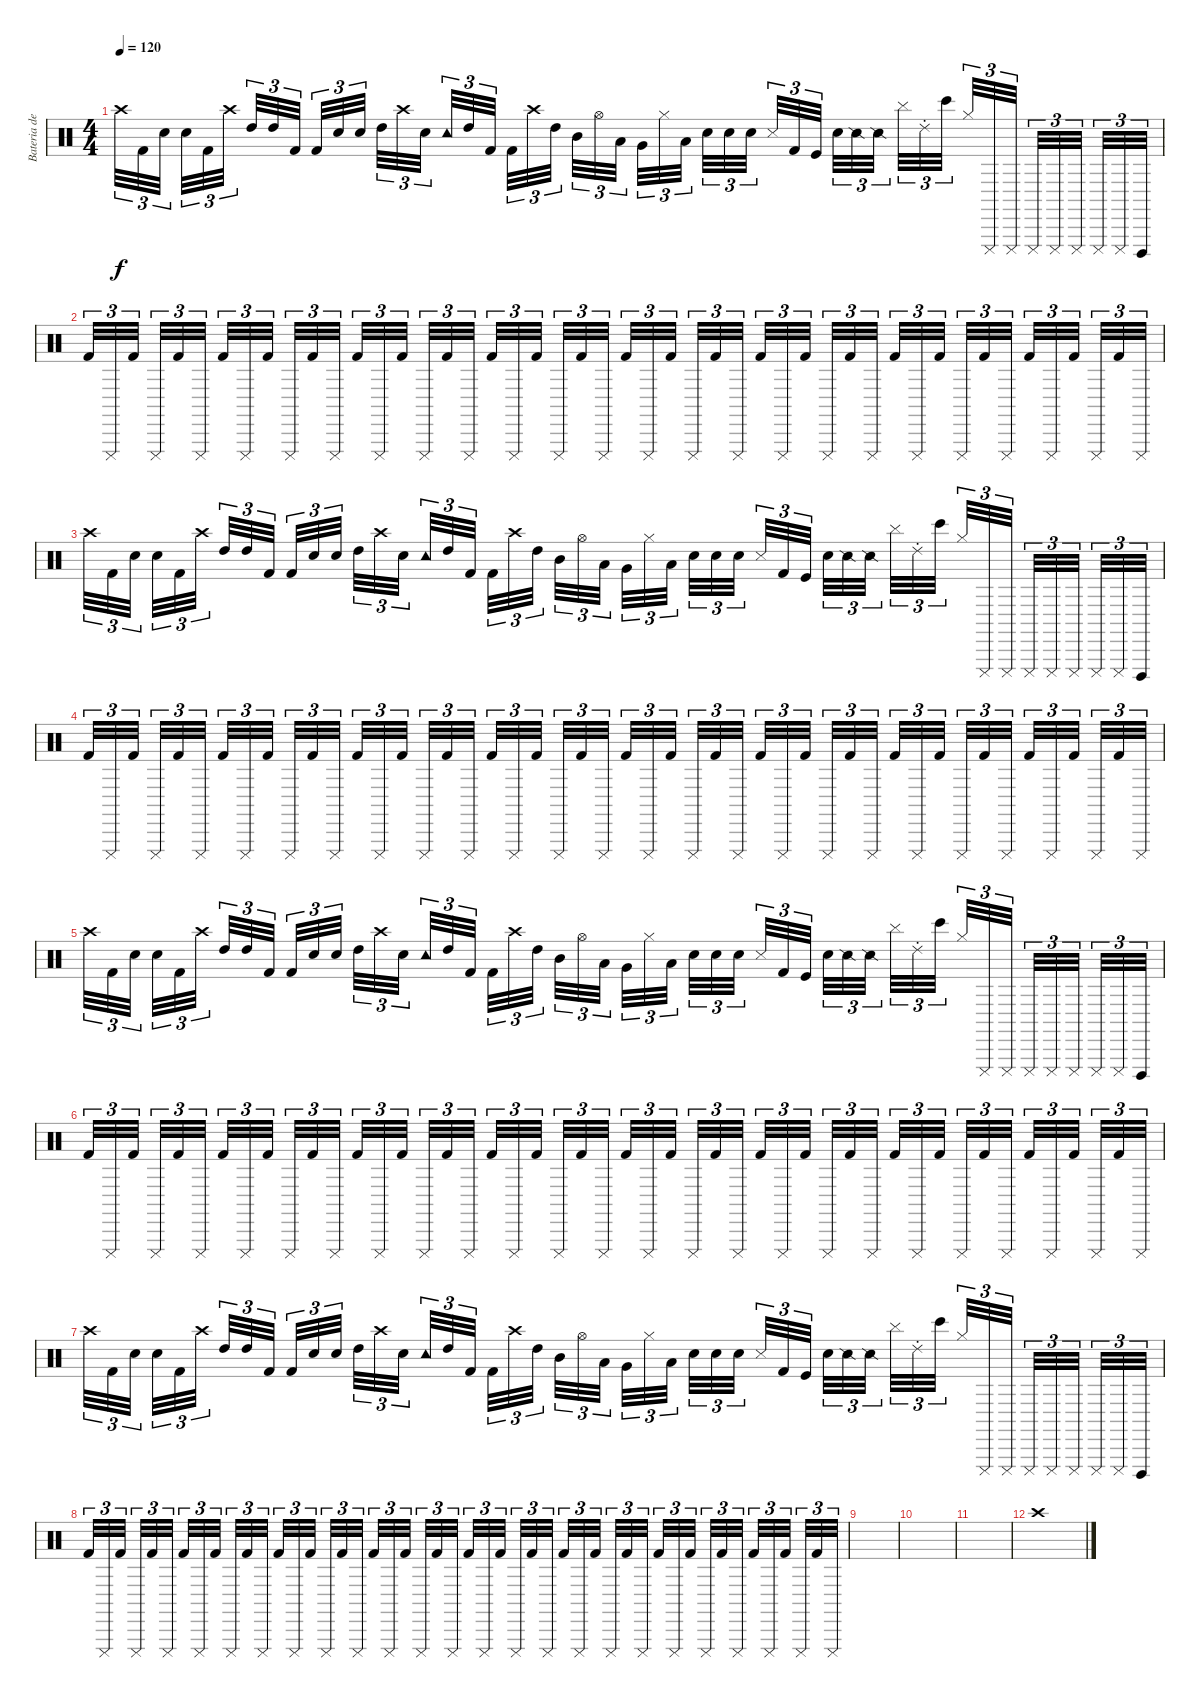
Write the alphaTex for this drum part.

\track ("Bateria de animal" "Bateria de") {instrument percussion}
\staff {score}
\articulation defaults
\ts (4 4)
\tempo 120
\clef neutral
\ks c "Crash high (hit)".32{tu (3 2) dy f} "Kick (hit) 2".32{tu (3 2)} "Electric Snare (hit)".32{tu (3 2)} "Electric Snare (hit)".32{tu (3 2)} "Kick (hit) 2".32{tu (3 2)} "Crash high (hit)".32{tu (3 2)} "High Tom (hit)".32{tu (3 2)} "High Tom (hit)".32{tu (3 2)} "Kick (hit) 2".32{tu (3 2)} "Kick (hit) 2".32{tu (3 2)} "Electric Snare (hit)".32{tu (3 2)} "Electric Snare (hit)".32{tu (3 2)} "High Tom (hit)".32{tu (3 2)} "Crash high (hit)".32{tu (3 2)} "Snare (hit) 2".32{tu (3 2)} "Tambourine (hit)".32{tu (3 2)} "High Tom (hit)".32{tu (3 2)} "Kick (hit) 2".32{tu (3 2)} "Kick (hit) 2".32{tu (3 2)} "Crash high (hit)".32{tu (3 2)} "High Tom (hit)".32{tu (3 2)} "Mid Tom (hit)".32{tu (3 2)} "Hi-Hat (open)".32{tu (3 2)} "Low Tom (hit)".32{tu (3 2)} "Very Low Tom (hit)".32{tu (3 2)} "Hi-Hat (closed)".32{tu (3 2)} "Low Floor Tom (hit)".32{tu (3 2)} "Electric Snare (hit)".32{tu (3 2)} "Hand Clap (hit)".32{tu (3 2)} "Snare (hit) 2".32{tu (3 2)} "Snare (side stick) 3".32{tu (3 2)} "Kick (hit) 2".32{tu (3 2)} "Kick (hit)".32{tu (3 2)} "Metronome (bell)".32{tu (3 2)} "Snare (side stick) 2".32{tu (3 2)} "Snare (side stick) 2".32{tu (3 2)} "Cymbal (hit)".32{tu (3 2)} "Ride (choke) 2".32{tu (3 2)} "Bongo High (hit)".32{tu (3 2)} "Hi-Hat (closed)".32{tu (3 2)} "Cuica (mute)".32{tu (3 2)} "Cuica (mute)".32{tu (3 2)} "Cuica (mute)".32{tu (3 2)} "Cuica (mute)".32{tu (3 2)} "Cuica (mute)".32{tu (3 2)} "Cuica (mute)".32{tu (3 2)} "Cuica (mute)".32{tu (3 2)} "Cuica (open)".32{tu (3 2)}
|
"Kick (hit) 2".32{tu (3 2)} "Cuica (mute)".32{tu (3 2)} "Kick (hit) 2".32{tu (3 2)} "Cuica (mute)".32{tu (3 2)} "Kick (hit) 2".32{tu (3 2)} "Cuica (mute)".32{tu (3 2)} "Kick (hit) 2".32{tu (3 2)} "Cuica (mute)".32{tu (3 2)} "Kick (hit) 2".32{tu (3 2)} "Cuica (mute)".32{tu (3 2)} "Kick (hit) 2".32{tu (3 2)} "Cuica (mute)".32{tu (3 2)} "Kick (hit) 2".32{tu (3 2)} "Cuica (mute)".32{tu (3 2)} "Kick (hit) 2".32{tu (3 2)} "Cuica (mute)".32{tu (3 2)} "Kick (hit) 2".32{tu (3 2)} "Cuica (mute)".32{tu (3 2)} "Kick (hit) 2".32{tu (3 2)} "Cuica (mute)".32{tu (3 2)} "Kick (hit) 2".32{tu (3 2)} "Cuica (mute)".32{tu (3 2)} "Kick (hit) 2".32{tu (3 2)} "Cuica (mute)".32{tu (3 2)} "Kick (hit) 2".32{tu (3 2)} "Cuica (mute)".32{tu (3 2)} "Kick (hit) 2".32{tu (3 2)} "Cuica (mute)".32{tu (3 2)} "Kick (hit) 2".32{tu (3 2)} "Cuica (mute)".32{tu (3 2)} "Kick (hit) 2".32{tu (3 2)} "Cuica (mute)".32{tu (3 2)} "Kick (hit) 2".32{tu (3 2)} "Cuica (mute)".32{tu (3 2)} "Kick (hit) 2".32{tu (3 2)} "Cuica (mute)".32{tu (3 2)} "Kick (hit) 2".32{tu (3 2)} "Cuica (mute)".32{tu (3 2)} "Kick (hit) 2".32{tu (3 2)} "Cuica (mute)".32{tu (3 2)} "Kick (hit) 2".32{tu (3 2)} "Cuica (mute)".32{tu (3 2)} "Kick (hit) 2".32{tu (3 2)} "Cuica (mute)".32{tu (3 2)} "Kick (hit) 2".32{tu (3 2)} "Cuica (mute)".32{tu (3 2)} "Kick (hit) 2".32{tu (3 2)} "Cuica (mute)".32{tu (3 2)} |
"Crash high (hit)".32{tu (3 2)} "Kick (hit) 2".32{tu (3 2)} "Electric Snare (hit)".32{tu (3 2)} "Electric Snare (hit)".32{tu (3 2)} "Kick (hit) 2".32{tu (3 2)} "Crash high (hit)".32{tu (3 2)} "High Tom (hit)".32{tu (3 2)} "High Tom (hit)".32{tu (3 2)} "Kick (hit) 2".32{tu (3 2)} "Kick (hit) 2".32{tu (3 2)} "Electric Snare (hit)".32{tu (3 2)} "Electric Snare (hit)".32{tu (3 2)} "High Tom (hit)".32{tu (3 2)} "Crash high (hit)".32{tu (3 2)} "Snare (hit) 2".32{tu (3 2)} "Tambourine (hit)".32{tu (3 2)} "High Tom (hit)".32{tu (3 2)} "Kick (hit) 2".32{tu (3 2)} "Kick (hit) 2".32{tu (3 2)} "Crash high (hit)".32{tu (3 2)} "High Tom (hit)".32{tu (3 2)} "Mid Tom (hit)".32{tu (3 2)} "Hi-Hat (open)".32{tu (3 2)} "Low Tom (hit)".32{tu (3 2)} "Very Low Tom (hit)".32{tu (3 2)} "Hi-Hat (closed)".32{tu (3 2)} "Low Floor Tom (hit)".32{tu (3 2)} "Electric Snare (hit)".32{tu (3 2)} "Hand Clap (hit)".32{tu (3 2)} "Snare (hit) 2".32{tu (3 2)} "Snare (side stick) 3".32{tu (3 2)} "Kick (hit) 2".32{tu (3 2)} "Kick (hit)".32{tu (3 2)} "Metronome (bell)".32{tu (3 2)} "Snare (side stick) 2".32{tu (3 2)} "Snare (side stick) 2".32{tu (3 2)} "Cymbal (hit)".32{tu (3 2)} "Ride (choke) 2".32{tu (3 2)} "Bongo High (hit)".32{tu (3 2)} "Hi-Hat (closed)".32{tu (3 2)} "Cuica (mute)".32{tu (3 2)} "Cuica (mute)".32{tu (3 2)} "Cuica (mute)".32{tu (3 2)} "Cuica (mute)".32{tu (3 2)} "Cuica (mute)".32{tu (3 2)} "Cuica (mute)".32{tu (3 2)} "Cuica (mute)".32{tu (3 2)} "Cuica (open)".32{tu (3 2)} |
"Kick (hit) 2".32{tu (3 2)} "Cuica (mute)".32{tu (3 2)} "Kick (hit) 2".32{tu (3 2)} "Cuica (mute)".32{tu (3 2)} "Kick (hit) 2".32{tu (3 2)} "Cuica (mute)".32{tu (3 2)} "Kick (hit) 2".32{tu (3 2)} "Cuica (mute)".32{tu (3 2)} "Kick (hit) 2".32{tu (3 2)} "Cuica (mute)".32{tu (3 2)} "Kick (hit) 2".32{tu (3 2)} "Cuica (mute)".32{tu (3 2)} "Kick (hit) 2".32{tu (3 2)} "Cuica (mute)".32{tu (3 2)} "Kick (hit) 2".32{tu (3 2)} "Cuica (mute)".32{tu (3 2)} "Kick (hit) 2".32{tu (3 2)} "Cuica (mute)".32{tu (3 2)} "Kick (hit) 2".32{tu (3 2)} "Cuica (mute)".32{tu (3 2)} "Kick (hit) 2".32{tu (3 2)} "Cuica (mute)".32{tu (3 2)} "Kick (hit) 2".32{tu (3 2)} "Cuica (mute)".32{tu (3 2)} "Kick (hit) 2".32{tu (3 2)} "Cuica (mute)".32{tu (3 2)} "Kick (hit) 2".32{tu (3 2)} "Cuica (mute)".32{tu (3 2)} "Kick (hit) 2".32{tu (3 2)} "Cuica (mute)".32{tu (3 2)} "Kick (hit) 2".32{tu (3 2)} "Cuica (mute)".32{tu (3 2)} "Kick (hit) 2".32{tu (3 2)} "Cuica (mute)".32{tu (3 2)} "Kick (hit) 2".32{tu (3 2)} "Cuica (mute)".32{tu (3 2)} "Kick (hit) 2".32{tu (3 2)} "Cuica (mute)".32{tu (3 2)} "Kick (hit) 2".32{tu (3 2)} "Cuica (mute)".32{tu (3 2)} "Kick (hit) 2".32{tu (3 2)} "Cuica (mute)".32{tu (3 2)} "Kick (hit) 2".32{tu (3 2)} "Cuica (mute)".32{tu (3 2)} "Kick (hit) 2".32{tu (3 2)} "Cuica (mute)".32{tu (3 2)} "Kick (hit) 2".32{tu (3 2)} "Cuica (mute)".32{tu (3 2)} |
"Crash high (hit)".32{tu (3 2)} "Kick (hit) 2".32{tu (3 2)} "Electric Snare (hit)".32{tu (3 2)} "Electric Snare (hit)".32{tu (3 2)} "Kick (hit) 2".32{tu (3 2)} "Crash high (hit)".32{tu (3 2)} "High Tom (hit)".32{tu (3 2)} "High Tom (hit)".32{tu (3 2)} "Kick (hit) 2".32{tu (3 2)} "Kick (hit) 2".32{tu (3 2)} "Electric Snare (hit)".32{tu (3 2)} "Electric Snare (hit)".32{tu (3 2)} "High Tom (hit)".32{tu (3 2)} "Crash high (hit)".32{tu (3 2)} "Snare (hit) 2".32{tu (3 2)} "Tambourine (hit)".32{tu (3 2)} "High Tom (hit)".32{tu (3 2)} "Kick (hit) 2".32{tu (3 2)} "Kick (hit) 2".32{tu (3 2)} "Crash high (hit)".32{tu (3 2)} "High Tom (hit)".32{tu (3 2)} "Mid Tom (hit)".32{tu (3 2)} "Hi-Hat (open)".32{tu (3 2)} "Low Tom (hit)".32{tu (3 2)} "Very Low Tom (hit)".32{tu (3 2)} "Hi-Hat (closed)".32{tu (3 2)} "Low Floor Tom (hit)".32{tu (3 2)} "Electric Snare (hit)".32{tu (3 2)} "Hand Clap (hit)".32{tu (3 2)} "Snare (hit) 2".32{tu (3 2)} "Snare (side stick) 3".32{tu (3 2)} "Kick (hit) 2".32{tu (3 2)} "Kick (hit)".32{tu (3 2)} "Metronome (bell)".32{tu (3 2)} "Snare (side stick) 2".32{tu (3 2)} "Snare (side stick) 2".32{tu (3 2)} "Cymbal (hit)".32{tu (3 2)} "Ride (choke) 2".32{tu (3 2)} "Bongo High (hit)".32{tu (3 2)} "Hi-Hat (closed)".32{tu (3 2)} "Cuica (mute)".32{tu (3 2)} "Cuica (mute)".32{tu (3 2)} "Cuica (mute)".32{tu (3 2)} "Cuica (mute)".32{tu (3 2)} "Cuica (mute)".32{tu (3 2)} "Cuica (mute)".32{tu (3 2)} "Cuica (mute)".32{tu (3 2)} "Cuica (open)".32{tu (3 2)} |
"Kick (hit) 2".32{tu (3 2)} "Cuica (mute)".32{tu (3 2)} "Kick (hit) 2".32{tu (3 2)} "Cuica (mute)".32{tu (3 2)} "Kick (hit) 2".32{tu (3 2)} "Cuica (mute)".32{tu (3 2)} "Kick (hit) 2".32{tu (3 2)} "Cuica (mute)".32{tu (3 2)} "Kick (hit) 2".32{tu (3 2)} "Cuica (mute)".32{tu (3 2)} "Kick (hit) 2".32{tu (3 2)} "Cuica (mute)".32{tu (3 2)} "Kick (hit) 2".32{tu (3 2)} "Cuica (mute)".32{tu (3 2)} "Kick (hit) 2".32{tu (3 2)} "Cuica (mute)".32{tu (3 2)} "Kick (hit) 2".32{tu (3 2)} "Cuica (mute)".32{tu (3 2)} "Kick (hit) 2".32{tu (3 2)} "Cuica (mute)".32{tu (3 2)} "Kick (hit) 2".32{tu (3 2)} "Cuica (mute)".32{tu (3 2)} "Kick (hit) 2".32{tu (3 2)} "Cuica (mute)".32{tu (3 2)} "Kick (hit) 2".32{tu (3 2)} "Cuica (mute)".32{tu (3 2)} "Kick (hit) 2".32{tu (3 2)} "Cuica (mute)".32{tu (3 2)} "Kick (hit) 2".32{tu (3 2)} "Cuica (mute)".32{tu (3 2)} "Kick (hit) 2".32{tu (3 2)} "Cuica (mute)".32{tu (3 2)} "Kick (hit) 2".32{tu (3 2)} "Cuica (mute)".32{tu (3 2)} "Kick (hit) 2".32{tu (3 2)} "Cuica (mute)".32{tu (3 2)} "Kick (hit) 2".32{tu (3 2)} "Cuica (mute)".32{tu (3 2)} "Kick (hit) 2".32{tu (3 2)} "Cuica (mute)".32{tu (3 2)} "Kick (hit) 2".32{tu (3 2)} "Cuica (mute)".32{tu (3 2)} "Kick (hit) 2".32{tu (3 2)} "Cuica (mute)".32{tu (3 2)} "Kick (hit) 2".32{tu (3 2)} "Cuica (mute)".32{tu (3 2)} "Kick (hit) 2".32{tu (3 2)} "Cuica (mute)".32{tu (3 2)} |
"Crash high (hit)".32{tu (3 2)} "Kick (hit) 2".32{tu (3 2)} "Electric Snare (hit)".32{tu (3 2)} "Electric Snare (hit)".32{tu (3 2)} "Kick (hit) 2".32{tu (3 2)} "Crash high (hit)".32{tu (3 2)} "High Tom (hit)".32{tu (3 2)} "High Tom (hit)".32{tu (3 2)} "Kick (hit) 2".32{tu (3 2)} "Kick (hit) 2".32{tu (3 2)} "Electric Snare (hit)".32{tu (3 2)} "Electric Snare (hit)".32{tu (3 2)} "High Tom (hit)".32{tu (3 2)} "Crash high (hit)".32{tu (3 2)} "Snare (hit) 2".32{tu (3 2)} "Tambourine (hit)".32{tu (3 2)} "High Tom (hit)".32{tu (3 2)} "Kick (hit) 2".32{tu (3 2)} "Kick (hit) 2".32{tu (3 2)} "Crash high (hit)".32{tu (3 2)} "High Tom (hit)".32{tu (3 2)} "Mid Tom (hit)".32{tu (3 2)} "Hi-Hat (open)".32{tu (3 2)} "Low Tom (hit)".32{tu (3 2)} "Very Low Tom (hit)".32{tu (3 2)} "Hi-Hat (closed)".32{tu (3 2)} "Low Floor Tom (hit)".32{tu (3 2)} "Electric Snare (hit)".32{tu (3 2)} "Hand Clap (hit)".32{tu (3 2)} "Snare (hit) 2".32{tu (3 2)} "Snare (side stick) 3".32{tu (3 2)} "Kick (hit) 2".32{tu (3 2)} "Kick (hit)".32{tu (3 2)} "Metronome (bell)".32{tu (3 2)} "Snare (side stick) 2".32{tu (3 2)} "Snare (side stick) 2".32{tu (3 2)} "Cymbal (hit)".32{tu (3 2)} "Ride (choke) 2".32{tu (3 2)} "Bongo High (hit)".32{tu (3 2)} "Hi-Hat (closed)".32{tu (3 2)} "Cuica (mute)".32{tu (3 2)} "Cuica (mute)".32{tu (3 2)} "Cuica (mute)".32{tu (3 2)} "Cuica (mute)".32{tu (3 2)} "Cuica (mute)".32{tu (3 2)} "Cuica (mute)".32{tu (3 2)} "Cuica (mute)".32{tu (3 2)} "Cuica (open)".32{tu (3 2)} |
"Kick (hit) 2".32{tu (3 2)} "Cuica (mute)".32{tu (3 2)} "Kick (hit) 2".32{tu (3 2)} "Cuica (mute)".32{tu (3 2)} "Kick (hit) 2".32{tu (3 2)} "Cuica (mute)".32{tu (3 2)} "Kick (hit) 2".32{tu (3 2)} "Cuica (mute)".32{tu (3 2)} "Kick (hit) 2".32{tu (3 2)} "Cuica (mute)".32{tu (3 2)} "Kick (hit) 2".32{tu (3 2)} "Cuica (mute)".32{tu (3 2)} "Kick (hit) 2".32{tu (3 2)} "Cuica (mute)".32{tu (3 2)} "Kick (hit) 2".32{tu (3 2)} "Cuica (mute)".32{tu (3 2)} "Kick (hit) 2".32{tu (3 2)} "Cuica (mute)".32{tu (3 2)} "Kick (hit) 2".32{tu (3 2)} "Cuica (mute)".32{tu (3 2)} "Kick (hit) 2".32{tu (3 2)} "Cuica (mute)".32{tu (3 2)} "Kick (hit) 2".32{tu (3 2)} "Cuica (mute)".32{tu (3 2)} "Kick (hit) 2".32{tu (3 2)} "Cuica (mute)".32{tu (3 2)} "Kick (hit) 2".32{tu (3 2)} "Cuica (mute)".32{tu (3 2)} "Kick (hit) 2".32{tu (3 2)} "Cuica (mute)".32{tu (3 2)} "Kick (hit) 2".32{tu (3 2)} "Cuica (mute)".32{tu (3 2)} "Kick (hit) 2".32{tu (3 2)} "Cuica (mute)".32{tu (3 2)} "Kick (hit) 2".32{tu (3 2)} "Cuica (mute)".32{tu (3 2)} "Kick (hit) 2".32{tu (3 2)} "Cuica (mute)".32{tu (3 2)} "Kick (hit) 2".32{tu (3 2)} "Cuica (mute)".32{tu (3 2)} "Kick (hit) 2".32{tu (3 2)} "Cuica (mute)".32{tu (3 2)} "Kick (hit) 2".32{tu (3 2)} "Cuica (mute)".32{tu (3 2)} "Kick (hit) 2".32{tu (3 2)} "Cuica (mute)".32{tu (3 2)} "Kick (hit) 2".32{tu (3 2)} "Cuica (mute)".32{tu (3 2)} |
|
|
|
"Crash high (hit)".1
